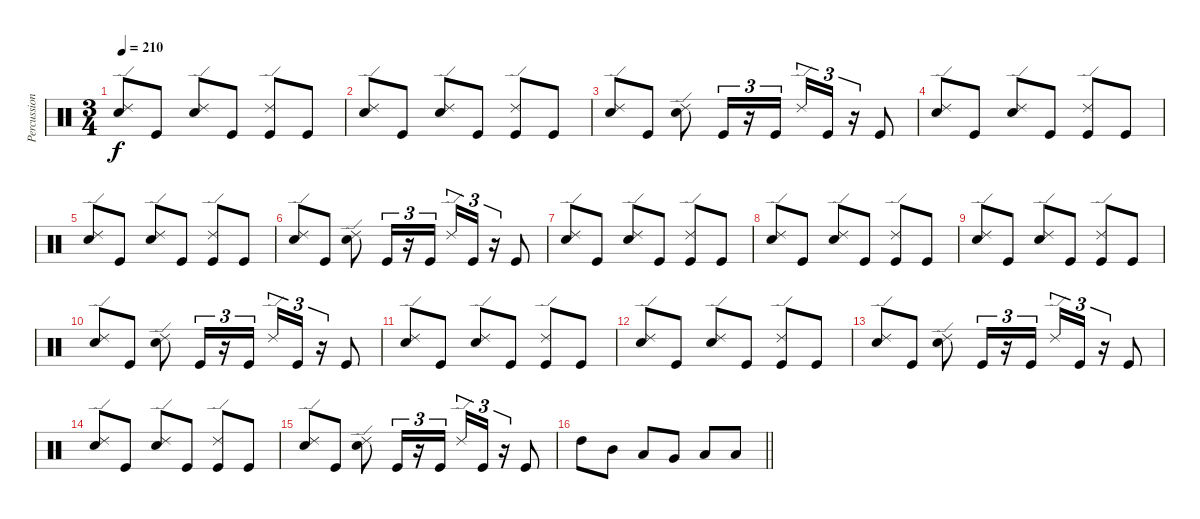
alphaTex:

\track ("Percussion" "Percussion") {instrument percussion}
\staff
\articulation defaults
\ts (3 4)
\tempo 210
\clef neutral
\ks c
("Ride (edge) 2" "Snare (hit) 2").8{dy f} "Kick (hit)".8 ("Ride (edge) 2" "Snare (hit) 2").8 "Kick (hit)".8 ("Ride (edge) 2" "Kick (hit)").8 "Kick (hit)".8 |
("Ride (edge) 2" "Snare (hit) 2").8 "Kick (hit)".8 ("Ride (edge) 2" "Snare (hit) 2").8 "Kick (hit)".8 ("Ride (edge) 2" "Kick (hit)").8 "Kick (hit)".8 |
("Ride (edge) 2" "Snare (hit) 2").8 "Kick (hit)".8 ("Ride (edge) 2" "Snare (hit) 2").8 "Kick (hit)".16{tu (3 2)} r.16{tu (3 2)} "Kick (hit)".16{tu (3 2)} "Ride (edge) 2".16{tu (3 2)} "Kick (hit)".16{tu (3 2)} r.16{tu (3 2)} "Kick (hit)".8 |
("Ride (edge) 2" "Snare (hit) 2").8 "Kick (hit)".8 ("Ride (edge) 2" "Snare (hit) 2").8 "Kick (hit)".8 ("Ride (edge) 2" "Kick (hit)").8 "Kick (hit)".8 |
("Ride (edge) 2" "Snare (hit) 2").8 "Kick (hit)".8 ("Ride (edge) 2" "Snare (hit) 2").8 "Kick (hit)".8 ("Ride (edge) 2" "Kick (hit)").8 "Kick (hit)".8 |
("Ride (edge) 2" "Snare (hit) 2").8 "Kick (hit)".8 ("Ride (edge) 2" "Snare (hit) 2").8 "Kick (hit)".16{tu (3 2)} r.16{tu (3 2)} "Kick (hit)".16{tu (3 2)} "Ride (edge) 2".16{tu (3 2)} "Kick (hit)".16{tu (3 2)} r.16{tu (3 2)} "Kick (hit)".8 |
("Ride (edge) 2" "Snare (hit) 2").8 "Kick (hit)".8 ("Ride (edge) 2" "Snare (hit) 2").8 "Kick (hit)".8 ("Ride (edge) 2" "Kick (hit)").8 "Kick (hit)".8 |
("Ride (edge) 2" "Snare (hit) 2").8 "Kick (hit)".8 ("Ride (edge) 2" "Snare (hit) 2").8 "Kick (hit)".8 ("Ride (edge) 2" "Kick (hit)").8 "Kick (hit)".8 |
("Ride (edge) 2" "Snare (hit) 2").8 "Kick (hit)".8 ("Ride (edge) 2" "Snare (hit) 2").8 "Kick (hit)".8 ("Ride (edge) 2" "Kick (hit)").8 "Kick (hit)".8 |
("Ride (edge) 2" "Snare (hit) 2").8 "Kick (hit)".8 ("Ride (edge) 2" "Snare (hit) 2").8 "Kick (hit)".16{tu (3 2)} r.16{tu (3 2)} "Kick (hit)".16{tu (3 2)} "Ride (edge) 2".16{tu (3 2)} "Kick (hit)".16{tu (3 2)} r.16{tu (3 2)} "Kick (hit)".8 |
("Ride (edge) 2" "Snare (hit) 2").8 "Kick (hit)".8 ("Ride (edge) 2" "Snare (hit) 2").8 "Kick (hit)".8 ("Ride (edge) 2" "Kick (hit)").8 "Kick (hit)".8 |
("Ride (edge) 2" "Snare (hit) 2").8 "Kick (hit)".8 ("Ride (edge) 2" "Snare (hit) 2").8 "Kick (hit)".8 ("Ride (edge) 2" "Kick (hit)").8 "Kick (hit)".8 |
("Ride (edge) 2" "Snare (hit) 2").8 "Kick (hit)".8 ("Ride (edge) 2" "Snare (hit) 2").8 "Kick (hit)".16{tu (3 2)} r.16{tu (3 2)} "Kick (hit)".16{tu (3 2)} "Ride (edge) 2".16{tu (3 2)} "Kick (hit)".16{tu (3 2)} r.16{tu (3 2)} "Kick (hit)".8 |
("Ride (edge) 2" "Snare (hit) 2").8 "Kick (hit)".8 ("Ride (edge) 2" "Snare (hit) 2").8 "Kick (hit)".8 ("Ride (edge) 2" "Kick (hit)").8 "Kick (hit)".8 |
("Ride (edge) 2" "Snare (hit) 2").8 "Kick (hit)".8 ("Ride (edge) 2" "Snare (hit) 2").8 "Kick (hit)".16{tu (3 2)} r.16{tu (3 2)} "Kick (hit)".16{tu (3 2)} "Ride (edge) 2".16{tu (3 2)} "Kick (hit)".16{tu (3 2)} r.16{tu (3 2)} "Kick (hit)".8 |
\barLineRight lightlight "High Tom (hit)".8 "Mid Tom (hit)".8 "Low Tom (hit)".8 "Very Low Tom (hit)".8 "Low Floor Tom (hit)".8 "Low Floor Tom (hit)".8
